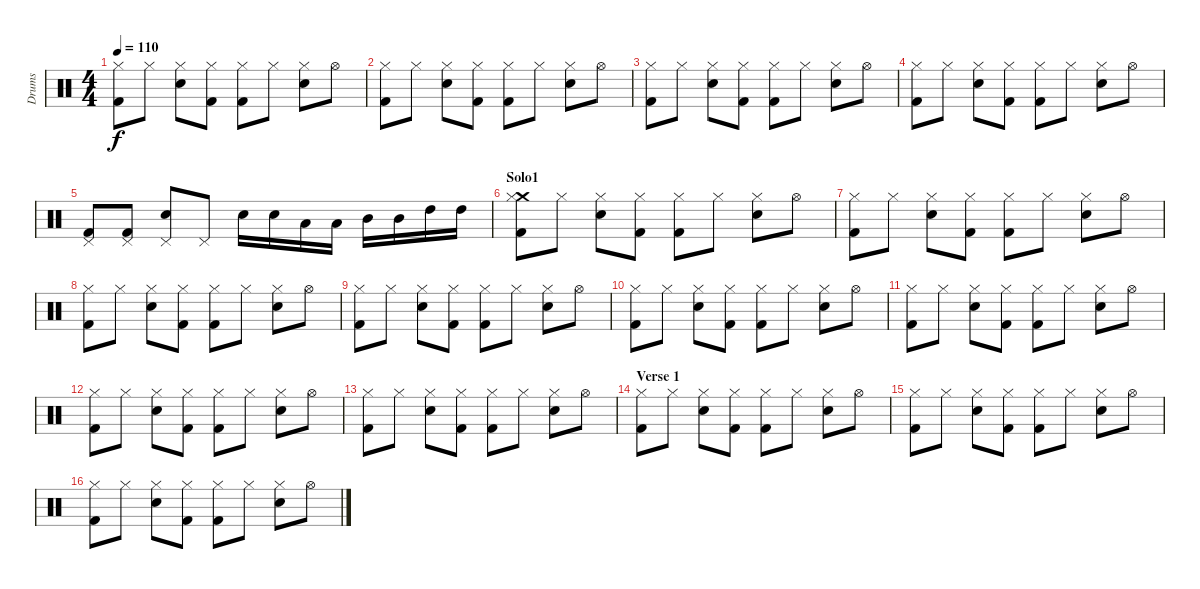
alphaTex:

\track ("Drums" "Drums") {instrument percussion}
\staff {score}
\articulation defaults
\ts (4 4)
\tempo 110
\clef neutral
\ks c
("Hi-Hat (closed)" "Kick (hit) 2").8{dy f} "Hi-Hat (closed)".8 ("Hi-Hat (closed)" "Snare (hit) 2").8 ("Hi-Hat (closed)" "Kick (hit) 2").8 ("Hi-Hat (closed)" "Kick (hit) 2").8 "Hi-Hat (closed)".8 ("Hi-Hat (closed)" "Snare (hit) 2").8 "Hi-Hat (open)".8 |
("Hi-Hat (closed)" "Kick (hit) 2").8 "Hi-Hat (closed)".8 ("Hi-Hat (closed)" "Snare (hit) 2").8 ("Hi-Hat (closed)" "Kick (hit) 2").8 ("Hi-Hat (closed)" "Kick (hit) 2").8 "Hi-Hat (closed)".8 ("Hi-Hat (closed)" "Snare (hit) 2").8 "Hi-Hat (open)".8 |
("Hi-Hat (closed)" "Kick (hit) 2").8 "Hi-Hat (closed)".8 ("Hi-Hat (closed)" "Snare (hit) 2").8 ("Hi-Hat (closed)" "Kick (hit) 2").8 ("Hi-Hat (closed)" "Kick (hit) 2").8 "Hi-Hat (closed)".8 ("Hi-Hat (closed)" "Snare (hit) 2").8 "Hi-Hat (open)".8 |
("Hi-Hat (closed)" "Kick (hit) 2").8 "Hi-Hat (closed)".8 ("Hi-Hat (closed)" "Snare (hit) 2").8 ("Hi-Hat (closed)" "Kick (hit) 2").8 ("Hi-Hat (closed)" "Kick (hit) 2").8 "Hi-Hat (closed)".8 ("Hi-Hat (closed)" "Snare (hit) 2").8 "Hi-Hat (open)".8 |
("Pedal Hi-Hat (hit)" "Kick (hit) 2").8 ("Pedal Hi-Hat (hit)" "Kick (hit) 2").8 ("Pedal Hi-Hat (hit)" "Snare (hit) 2").8 "Pedal Hi-Hat (hit)".8 "Snare (hit) 2".16 "Snare (hit) 2".16 "Low Tom (hit)".16 "Low Tom (hit)".16 "Mid Tom (hit)".16 "Mid Tom (hit)".16 "High Tom (hit)".16 "High Tom (hit)".16 |
\section ("" "Solo1")
("Crash medium (hit)" "Hi-Hat (closed)" "Kick (hit) 2").8 "Hi-Hat (closed)".8 ("Hi-Hat (closed)" "Snare (hit) 2").8 ("Hi-Hat (closed)" "Kick (hit) 2").8 ("Hi-Hat (closed)" "Kick (hit) 2").8 "Hi-Hat (closed)".8 ("Hi-Hat (closed)" "Snare (hit) 2").8 "Hi-Hat (open)".8 |
("Hi-Hat (closed)" "Kick (hit) 2").8 "Hi-Hat (closed)".8 ("Hi-Hat (closed)" "Snare (hit) 2").8 ("Hi-Hat (closed)" "Kick (hit) 2").8 ("Hi-Hat (closed)" "Kick (hit) 2").8 "Hi-Hat (closed)".8 ("Hi-Hat (closed)" "Snare (hit) 2").8 "Hi-Hat (open)".8 |
("Hi-Hat (closed)" "Kick (hit) 2").8 "Hi-Hat (closed)".8 ("Hi-Hat (closed)" "Snare (hit) 2").8 ("Hi-Hat (closed)" "Kick (hit) 2").8 ("Hi-Hat (closed)" "Kick (hit) 2").8 "Hi-Hat (closed)".8 ("Hi-Hat (closed)" "Snare (hit) 2").8 "Hi-Hat (open)".8 |
("Hi-Hat (closed)" "Kick (hit) 2").8 "Hi-Hat (closed)".8 ("Hi-Hat (closed)" "Snare (hit) 2").8 ("Hi-Hat (closed)" "Kick (hit) 2").8 ("Hi-Hat (closed)" "Kick (hit) 2").8 "Hi-Hat (closed)".8 ("Hi-Hat (closed)" "Snare (hit) 2").8 "Hi-Hat (open)".8 |
("Hi-Hat (closed)" "Kick (hit) 2").8 "Hi-Hat (closed)".8 ("Hi-Hat (closed)" "Snare (hit) 2").8 ("Hi-Hat (closed)" "Kick (hit) 2").8 ("Hi-Hat (closed)" "Kick (hit) 2").8 "Hi-Hat (closed)".8 ("Hi-Hat (closed)" "Snare (hit) 2").8 "Hi-Hat (open)".8 |
("Hi-Hat (closed)" "Kick (hit) 2").8 "Hi-Hat (closed)".8 ("Hi-Hat (closed)" "Snare (hit) 2").8 ("Hi-Hat (closed)" "Kick (hit) 2").8 ("Hi-Hat (closed)" "Kick (hit) 2").8 "Hi-Hat (closed)".8 ("Hi-Hat (closed)" "Snare (hit) 2").8 "Hi-Hat (open)".8 |
("Hi-Hat (closed)" "Kick (hit) 2").8 "Hi-Hat (closed)".8 ("Hi-Hat (closed)" "Snare (hit) 2").8 ("Hi-Hat (closed)" "Kick (hit) 2").8 ("Hi-Hat (closed)" "Kick (hit) 2").8 "Hi-Hat (closed)".8 ("Hi-Hat (closed)" "Snare (hit) 2").8 "Hi-Hat (open)".8 |
("Hi-Hat (closed)" "Kick (hit) 2").8 "Hi-Hat (closed)".8 ("Hi-Hat (closed)" "Snare (hit) 2").8 ("Hi-Hat (closed)" "Kick (hit) 2").8 ("Hi-Hat (closed)" "Kick (hit) 2").8 "Hi-Hat (closed)".8 ("Hi-Hat (closed)" "Snare (hit) 2").8 "Hi-Hat (open)".8 |
\section ("" "Verse 1")
("Hi-Hat (closed)" "Kick (hit) 2").8 "Hi-Hat (closed)".8 ("Hi-Hat (closed)" "Snare (hit) 2").8 ("Hi-Hat (closed)" "Kick (hit) 2").8 ("Hi-Hat (closed)" "Kick (hit) 2").8 "Hi-Hat (closed)".8 ("Hi-Hat (closed)" "Snare (hit) 2").8 "Hi-Hat (open)".8 |
("Hi-Hat (closed)" "Kick (hit) 2").8 "Hi-Hat (closed)".8 ("Hi-Hat (closed)" "Snare (hit) 2").8 ("Hi-Hat (closed)" "Kick (hit) 2").8 ("Hi-Hat (closed)" "Kick (hit) 2").8 "Hi-Hat (closed)".8 ("Hi-Hat (closed)" "Snare (hit) 2").8 "Hi-Hat (open)".8 |
("Hi-Hat (closed)" "Kick (hit) 2").8 "Hi-Hat (closed)".8 ("Hi-Hat (closed)" "Snare (hit) 2").8 ("Hi-Hat (closed)" "Kick (hit) 2").8 ("Hi-Hat (closed)" "Kick (hit) 2").8 "Hi-Hat (closed)".8 ("Hi-Hat (closed)" "Snare (hit) 2").8 "Hi-Hat (open)".8
